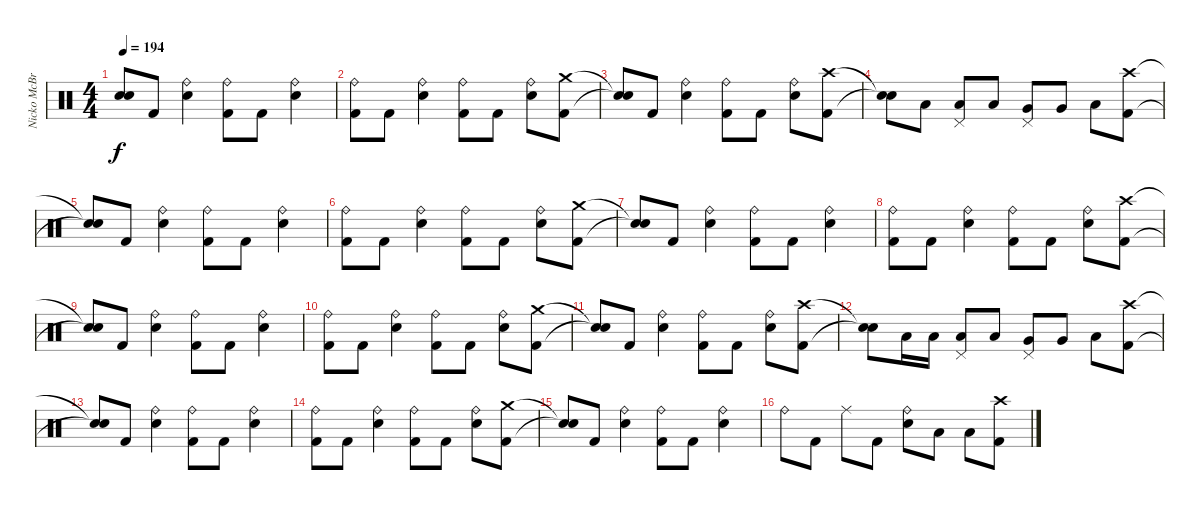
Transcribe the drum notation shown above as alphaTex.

\track ("Nicko McBrain" "Nicko McBr") {instrument percussion}
\staff {score}
\articulation defaults
\ts (4 4)
\tempo 194
\clef neutral
\ks c
("Snare (hit)"{t} "Snare (hit)"{t}).8{dy f} "Kick (hit) 2".8 ("Ride (bell)" "Electric Snare (hit)").4 ("Ride (bell)" "Kick (hit) 2").8 "Kick (hit) 2".8 ("Ride (bell)" "Electric Snare (hit)").4 |
("Ride (bell)" "Kick (hit) 2").8 "Kick (hit) 2".8 ("Ride (bell)" "Electric Snare (hit)").4 ("Ride (bell)" "Kick (hit) 2").8 "Kick (hit) 2".8 ("Ride (bell)" "Electric Snare (hit)").8 ("Crash medium (hit)" "Kick (hit) 2").8 |
("Snare (hit)"{t} "Snare (hit)"{t}).8 "Kick (hit) 2".8 ("Ride (bell)" "Electric Snare (hit)").4 ("Ride (bell)" "Kick (hit) 2").8 "Kick (hit) 2".8 ("Ride (bell)" "Electric Snare (hit)").8 ("Crash high (hit)" "Kick (hit) 2").8 |
("Snare (hit)"{t} "Snare (hit)"{t}).8 "Low Tom (hit)".8 ("Low Tom (hit)" "Pedal Hi-Hat (hit)").8 "Low Tom (hit)".8 ("Very Low Tom (hit)" "Pedal Hi-Hat (hit)").8 "Very Low Tom (hit)".8 "Low Floor Tom (hit)".8 ("Crash high (hit)" "Kick (hit) 2").8 |
("Snare (hit)"{t} "Snare (hit)"{t}).8 "Kick (hit) 2".8 ("Ride (bell)" "Electric Snare (hit)").4 ("Ride (bell)" "Kick (hit) 2").8 "Kick (hit) 2".8 ("Ride (bell)" "Electric Snare (hit)").4 |
("Ride (bell)" "Kick (hit) 2").8 "Kick (hit) 2".8 ("Ride (bell)" "Electric Snare (hit)").4 ("Ride (bell)" "Kick (hit) 2").8 "Kick (hit) 2".8 ("Ride (bell)" "Electric Snare (hit)").8 ("Crash medium (hit)" "Kick (hit) 2").8 |
("Snare (hit)"{t} "Snare (hit)"{t}).8 "Kick (hit) 2".8 ("Ride (bell)" "Electric Snare (hit)").4 ("Ride (bell)" "Kick (hit) 2").8 "Kick (hit) 2".8 ("Ride (bell)" "Electric Snare (hit)").4 |
("Ride (bell)" "Kick (hit) 2").8 "Kick (hit) 2".8 ("Ride (bell)" "Electric Snare (hit)").4 ("Ride (bell)" "Kick (hit) 2").8 "Kick (hit) 2".8 ("Ride (bell)" "Electric Snare (hit)").8 ("Crash high (hit)" "Kick (hit) 2").8 |
("Snare (hit)"{t} "Snare (hit)"{t}).8 "Kick (hit) 2".8 ("Ride (bell)" "Electric Snare (hit)").4 ("Ride (bell)" "Kick (hit) 2").8 "Kick (hit) 2".8 ("Ride (bell)" "Electric Snare (hit)").4 |
("Ride (bell)" "Kick (hit) 2").8 "Kick (hit) 2".8 ("Ride (bell)" "Electric Snare (hit)").4 ("Ride (bell)" "Kick (hit) 2").8 "Kick (hit) 2".8 ("Ride (bell)" "Electric Snare (hit)").8 ("Crash medium (hit)" "Kick (hit) 2").8 |
("Snare (hit)"{t} "Snare (hit)"{t}).8 "Kick (hit) 2".8 ("Ride (bell)" "Electric Snare (hit)").4 ("Ride (bell)" "Kick (hit) 2").8 "Kick (hit) 2".8 ("Ride (bell)" "Electric Snare (hit)").8 ("Crash high (hit)" "Kick (hit) 2").8 |
("Snare (hit)"{t} "Snare (hit)"{t}).8 "Low Tom (hit)".16 "Low Tom (hit)".16 ("Low Tom (hit)" "Pedal Hi-Hat (hit)").8 "Low Tom (hit)".8 ("Very Low Tom (hit)" "Pedal Hi-Hat (hit)").8 "Very Low Tom (hit)".8 "Low Floor Tom (hit)".8 ("Crash high (hit)" "Kick (hit) 2").8 |
("Snare (hit)"{t} "Snare (hit)"{t}).8 "Kick (hit) 2".8 ("Ride (bell)" "Electric Snare (hit)").4 ("Ride (bell)" "Kick (hit) 2").8 "Kick (hit) 2".8 ("Ride (bell)" "Electric Snare (hit)").4 |
("Ride (bell)" "Kick (hit) 2").8 "Kick (hit) 2".8 ("Ride (bell)" "Electric Snare (hit)").4 ("Ride (bell)" "Kick (hit) 2").8 "Kick (hit) 2".8 ("Ride (bell)" "Electric Snare (hit)").8 ("Crash medium (hit)" "Kick (hit) 2").8 |
("Snare (hit)"{t} "Snare (hit)"{t}).8 "Kick (hit) 2".8 ("Ride (bell)" "Electric Snare (hit)").4 ("Ride (bell)" "Kick (hit) 2").8 "Kick (hit) 2".8 ("Ride (bell)" "Electric Snare (hit)").4 |
"Ride (bell)".8 "Kick (hit) 2".8 "Ride (middle)".8 "Kick (hit) 2".8 ("Ride (bell)" "Electric Snare (hit)").8 "Low Tom (hit)".8 "Low Tom (hit)".8 ("Crash high (hit)" "Kick (hit) 2").8
